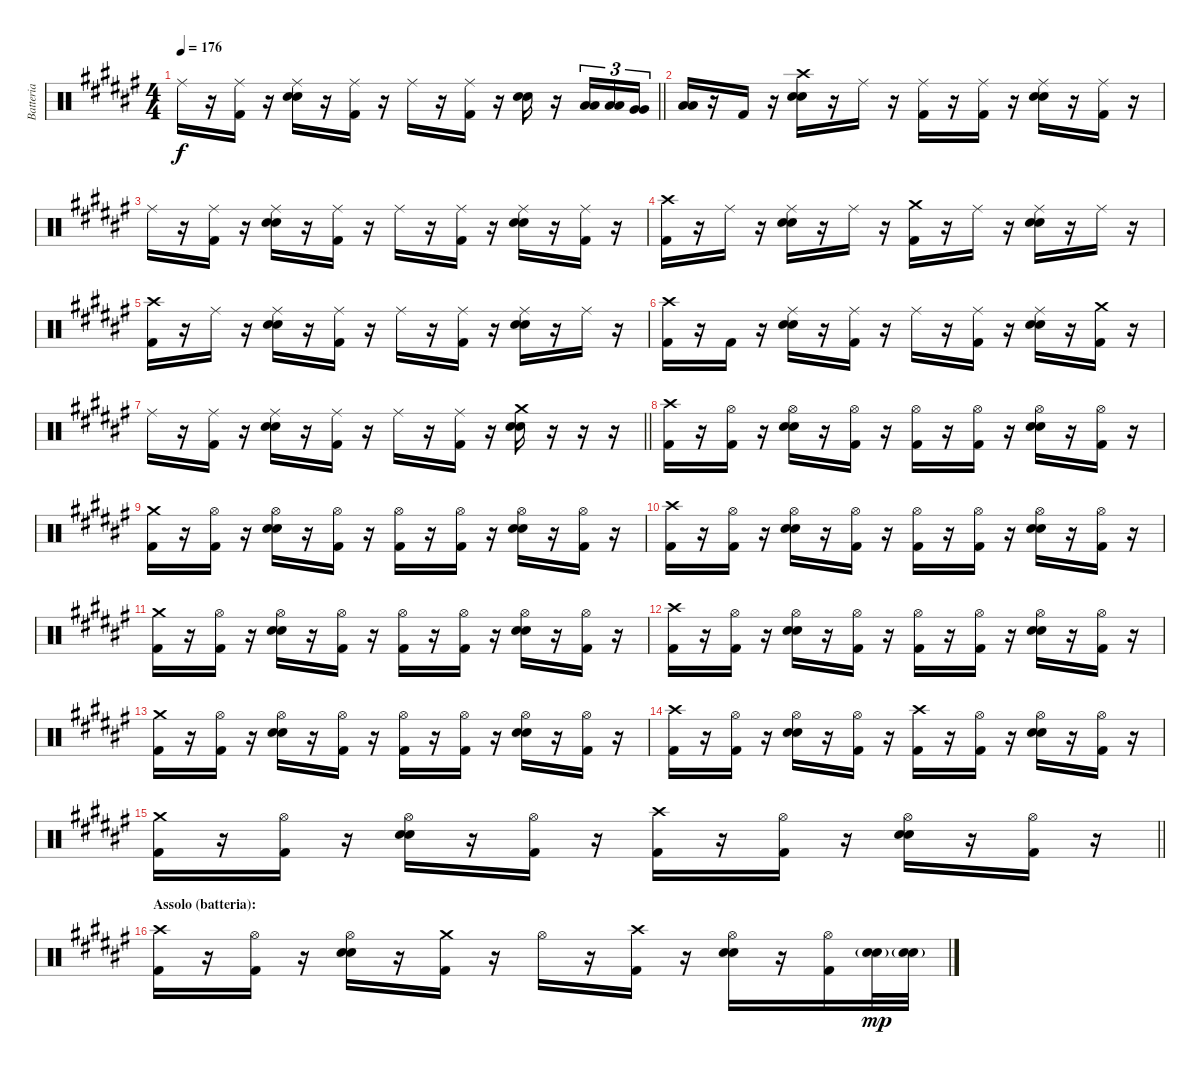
\track ("Batteria" "Batteria") {instrument percussion}
\staff {score}
\articulation defaults
\ts (4 4)
\tempo 176
\clef neutral
\barLineRight lightlight
\ks f# "Ride (middle)".16{dy f}
r.16 ("Kick (hit) 2" "Ride (middle)").16 r.16 ("Snare (hit) 2" "Snare (hit) 2" "Ride (middle)").16 r.16 ("Kick (hit) 2" "Ride (middle)").16 r.16 "Ride (middle)".16 r.16 ("Kick (hit) 2" "Ride (middle)").16 r.16 ("Snare (hit) 2" "Snare (hit) 2").16 r.16 ("Low Tom (hit)" "Low Tom (hit)").16{tu (3 2)} ("Low Tom (hit)" "Low Tom (hit)").16{tu (3 2)} ("Very Low Tom (hit)" "Very Low Tom (hit)").16{tu (3 2)} |
("Low Floor Tom (hit)" "Low Floor Tom (hit)").16 r.16 "Kick (hit) 2".16 r.16 ("Snare (hit) 2" "Snare (hit) 2" "Crash high (hit)").16 r.16 "Ride (middle)".16 r.16 ("Kick (hit) 2" "Ride (middle)").16 r.16 ("Kick (hit) 2" "Ride (middle)").16 r.16 ("Snare (hit) 2" "Snare (hit) 2" "Ride (middle)").16 r.16 ("Kick (hit) 2" "Ride (middle)").16 r.16 |
"Ride (middle)".16 r.16 ("Kick (hit) 2" "Ride (middle)").16 r.16 ("Snare (hit) 2" "Snare (hit) 2" "Ride (middle)").16 r.16 ("Kick (hit) 2" "Ride (middle)").16 r.16 "Ride (middle)".16 r.16 ("Kick (hit) 2" "Ride (middle)").16 r.16 ("Snare (hit) 2" "Snare (hit) 2" "Ride (middle)").16 r.16 ("Kick (hit) 2" "Ride (middle)").16 r.16 |
("Kick (hit) 2" "Crash high (hit)").16 r.16 "Ride (middle)".16 r.16 ("Snare (hit) 2" "Snare (hit) 2" "Ride (middle)").16 r.16 "Ride (middle)".16 r.16 ("Kick (hit) 2" "Crash medium (hit)").16 r.16 "Ride (middle)".16 r.16 ("Snare (hit) 2" "Snare (hit) 2" "Ride (middle)").16 r.16 "Ride (middle)".16 r.16 |
("Kick (hit) 2" "Crash high (hit)").16 r.16 "Ride (middle)".16 r.16 ("Snare (hit) 2" "Snare (hit) 2" "Ride (middle)").16 r.16 ("Kick (hit) 2" "Ride (middle)").16 r.16 "Ride (middle)".16 r.16 ("Kick (hit) 2" "Ride (middle)").16 r.16 ("Snare (hit) 2" "Snare (hit) 2" "Ride (middle)").16 r.16 "Ride (middle)".16 r.16 |
("Kick (hit) 2" "Crash high (hit)").16 r.16 "Kick (hit) 2".16 r.16 ("Snare (hit) 2" "Snare (hit) 2" "Ride (middle)").16 r.16 ("Kick (hit) 2" "Ride (middle)").16 r.16 "Ride (middle)".16 r.16 ("Kick (hit) 2" "Ride (middle)").16 r.16 ("Snare (hit) 2" "Snare (hit) 2" "Ride (middle)").16 r.16 ("Kick (hit) 2" "Crash medium (hit)").16 r.16 |
\barLineRight lightlight "Ride (middle)".16
r.16 ("Kick (hit) 2" "Ride (middle)").16 r.16 ("Snare (hit) 2" "Snare (hit) 2" "Ride (middle)").16 r.16 ("Kick (hit) 2" "Ride (middle)").16 r.16 "Ride (middle)".16 r.16 ("Kick (hit) 2" "Ride (middle)").16 r.16 ("Snare (hit) 2" "Snare (hit) 2" "Crash medium (hit)").16 r.16 r.16 r.16 |
("Kick (hit) 2" "Crash high (hit)").16 r.16 ("Kick (hit) 2" "Hi-Hat (open)").16 r.16 ("Snare (hit) 2" "Snare (hit) 2" "Hi-Hat (open)").16 r.16 ("Kick (hit) 2" "Hi-Hat (open)").16 r.16 ("Kick (hit) 2" "Hi-Hat (open)").16 r.16 ("Kick (hit) 2" "Hi-Hat (open)").16 r.16 ("Snare (hit) 2" "Snare (hit) 2" "Hi-Hat (open)").16 r.16 ("Kick (hit) 2" "Hi-Hat (open)").16 r.16 |
("Kick (hit) 2" "Crash medium (hit)").16 r.16 ("Kick (hit) 2" "Hi-Hat (open)").16 r.16 ("Snare (hit) 2" "Snare (hit) 2" "Hi-Hat (open)").16 r.16 ("Kick (hit) 2" "Hi-Hat (open)").16 r.16 ("Kick (hit) 2" "Hi-Hat (open)").16 r.16 ("Kick (hit) 2" "Hi-Hat (open)").16 r.16 ("Snare (hit) 2" "Snare (hit) 2" "Hi-Hat (open)").16 r.16 ("Kick (hit) 2" "Hi-Hat (open)").16 r.16 |
("Kick (hit) 2" "Crash high (hit)").16 r.16 ("Kick (hit) 2" "Hi-Hat (open)").16 r.16 ("Snare (hit) 2" "Snare (hit) 2" "Hi-Hat (open)").16 r.16 ("Kick (hit) 2" "Hi-Hat (open)").16 r.16 ("Kick (hit) 2" "Hi-Hat (open)").16 r.16 ("Kick (hit) 2" "Hi-Hat (open)").16 r.16 ("Snare (hit) 2" "Snare (hit) 2" "Hi-Hat (open)").16 r.16 ("Kick (hit) 2" "Hi-Hat (open)").16 r.16 |
("Kick (hit) 2" "Crash medium (hit)").16 r.16 ("Kick (hit) 2" "Hi-Hat (open)").16 r.16 ("Snare (hit) 2" "Snare (hit) 2" "Hi-Hat (open)").16 r.16 ("Kick (hit) 2" "Hi-Hat (open)").16 r.16 ("Kick (hit) 2" "Hi-Hat (open)").16 r.16 ("Kick (hit) 2" "Hi-Hat (open)").16 r.16 ("Snare (hit) 2" "Snare (hit) 2" "Hi-Hat (open)").16 r.16 ("Kick (hit) 2" "Hi-Hat (open)").16 r.16 |
("Kick (hit) 2" "Crash high (hit)").16 r.16 ("Kick (hit) 2" "Hi-Hat (open)").16 r.16 ("Snare (hit) 2" "Snare (hit) 2" "Hi-Hat (open)").16 r.16 ("Kick (hit) 2" "Hi-Hat (open)").16 r.16 ("Kick (hit) 2" "Hi-Hat (open)").16 r.16 ("Kick (hit) 2" "Hi-Hat (open)").16 r.16 ("Snare (hit) 2" "Snare (hit) 2" "Hi-Hat (open)").16 r.16 ("Kick (hit) 2" "Hi-Hat (open)").16 r.16 |
("Kick (hit) 2" "Crash medium (hit)").16 r.16 ("Kick (hit) 2" "Hi-Hat (open)").16 r.16 ("Snare (hit) 2" "Snare (hit) 2" "Hi-Hat (open)").16 r.16 ("Kick (hit) 2" "Hi-Hat (open)").16 r.16 ("Kick (hit) 2" "Hi-Hat (open)").16 r.16 ("Kick (hit) 2" "Hi-Hat (open)").16 r.16 ("Snare (hit) 2" "Snare (hit) 2" "Hi-Hat (open)").16 r.16 ("Kick (hit) 2" "Hi-Hat (open)").16 r.16 |
("Kick (hit) 2" "Crash high (hit)").16 r.16 ("Kick (hit) 2" "Hi-Hat (open)").16 r.16 ("Snare (hit) 2" "Snare (hit) 2" "Hi-Hat (open)").16 r.16 ("Kick (hit) 2" "Hi-Hat (open)").16 r.16 ("Kick (hit) 2" "Crash high (hit)").16 r.16 ("Kick (hit) 2" "Hi-Hat (open)").16 r.16 ("Snare (hit) 2" "Snare (hit) 2" "Hi-Hat (open)").16 r.16 ("Kick (hit) 2" "Hi-Hat (open)").16 r.16 |
\barLineRight lightlight
("Kick (hit) 2" "Crash medium (hit)").16 r.16 ("Kick (hit) 2" "Hi-Hat (open)").16 r.16 ("Snare (hit) 2" "Snare (hit) 2" "Hi-Hat (open)").16 r.16 ("Kick (hit) 2" "Hi-Hat (open)").16 r.16 ("Kick (hit) 2" "Crash high (hit)").16 r.16 ("Kick (hit) 2" "Hi-Hat (open)").16 r.16 ("Snare (hit) 2" "Snare (hit) 2" "Hi-Hat (open)").16 r.16 ("Kick (hit) 2" "Hi-Hat (open)").16 r.16 |
\section ("" "Assolo (batteria):")
("Kick (hit) 2" "Crash high (hit)").16 r.16 ("Kick (hit) 2" "Hi-Hat (open)").16 r.16 ("Snare (hit) 2" "Snare (hit) 2" "Hi-Hat (open)").16 r.16 ("Kick (hit) 2" "Crash medium (hit)").16 r.16 "Hi-Hat (open)".16 r.16 ("Kick (hit) 2" "Crash high (hit)").16 r.16 ("Snare (hit) 2" "Snare (hit) 2" "Hi-Hat (open)").16 r.16 ("Kick (hit) 2" "Hi-Hat (open)").16 ("Snare (hit) 2"{g} "Snare (hit) 2"{g}).32{dy mp} ("Snare (hit) 2"{g} "Snare (hit) 2"{g}).32
